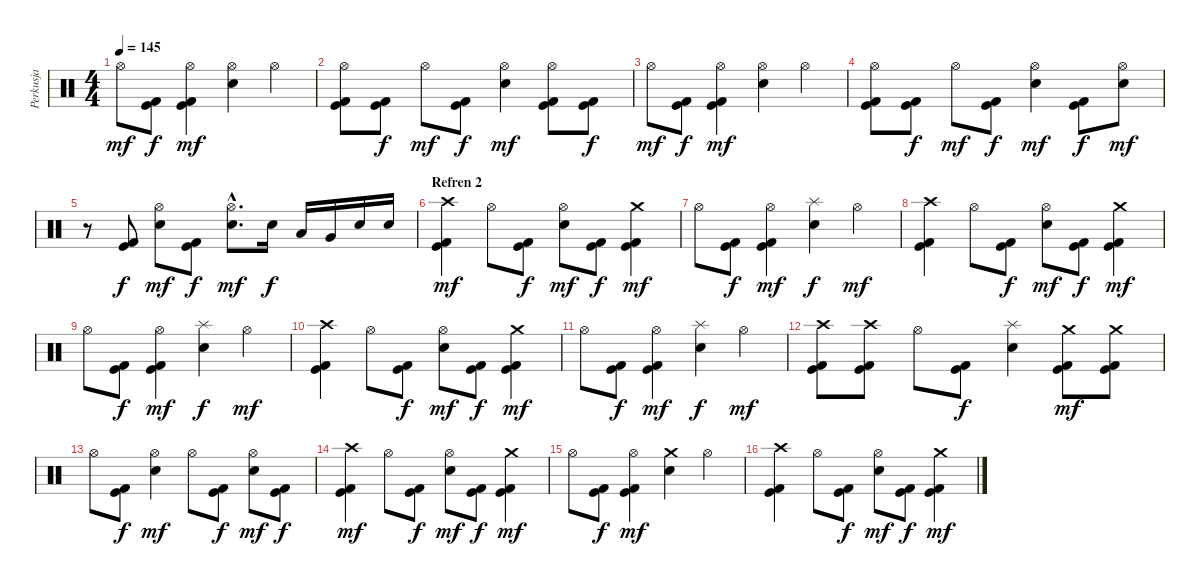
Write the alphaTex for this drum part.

\track ("Perkusja" "Perkusja") {instrument percussion}
\staff {score}
\articulation defaults
\ts (4 4)
\tempo 145
\clef neutral
\ks c "Hi-Hat (open)".8{dy mf}
("Kick (hit) 2" "Kick (hit)").8{dy f} ("Kick (hit) 2" "Kick (hit)" "Hi-Hat (open)").4{dy mf} ("Snare (hit) 2" "Hi-Hat (open)").4 "Hi-Hat (open)".4 |
("Kick (hit) 2" "Kick (hit)" "Hi-Hat (open)").8 ("Kick (hit) 2" "Kick (hit)").8{dy f} "Hi-Hat (open)".8{dy mf} ("Kick (hit) 2" "Kick (hit)").8{dy f} ("Snare (hit) 2" "Hi-Hat (open)").4{dy mf} ("Kick (hit) 2" "Kick (hit)" "Hi-Hat (open)").8 ("Kick (hit) 2" "Kick (hit)").8{dy f} |
"Hi-Hat (open)".8{dy mf} ("Kick (hit) 2" "Kick (hit)").8{dy f} ("Kick (hit) 2" "Kick (hit)" "Hi-Hat (open)").4{dy mf} ("Snare (hit) 2" "Hi-Hat (open)").4 "Hi-Hat (open)".4 |
("Kick (hit) 2" "Kick (hit)" "Hi-Hat (open)").8 ("Kick (hit) 2" "Kick (hit)").8{dy f} "Hi-Hat (open)".8{dy mf} ("Kick (hit) 2" "Kick (hit)").8{dy f} ("Snare (hit) 2" "Hi-Hat (open)").4{dy mf} ("Kick (hit) 2" "Kick (hit)").8{dy f} ("Hi-Hat (open)" "Snare (hit) 2").8{dy mf} |
r.8 ("Kick (hit) 2" "Kick (hit)").8{dy f} ("Snare (hit) 2" "Hi-Hat (open)").8{dy mf} ("Kick (hit) 2" "Kick (hit)").8{dy f} ("Snare (hit) 2"{hac} "Hi-Hat (open)"{hac}).8{d dy mf} "Snare (hit) 2".16{dy f} "Low Tom (hit)".16 "Very Low Tom (hit)".16 "Snare (hit) 2".16 "Snare (hit) 2".16 |
\section ("" "Refren 2")
("Kick (hit) 2" "Kick (hit)" "Crash high (hit)").4{dy mf} "Hi-Hat (open)".8 ("Kick (hit) 2" "Kick (hit)").8{dy f} ("Snare (hit) 2" "Hi-Hat (open)").8{dy mf} ("Kick (hit) 2" "Kick (hit)").8{dy f} ("Kick (hit)" "Kick (hit) 2" "Crash medium (hit)").4{dy mf} |
"Hi-Hat (open)".8 ("Kick (hit) 2" "Kick (hit)").8{dy f} ("Kick (hit) 2" "Kick (hit)" "Hi-Hat (open)").4{dy mf} ("Snare (hit) 2" "Splash (hit)").4{dy f} "Hi-Hat (open)".4{dy mf} |
("Kick (hit) 2" "Kick (hit)" "Crash high (hit)").4 "Hi-Hat (open)".8 ("Kick (hit) 2" "Kick (hit)").8{dy f} ("Snare (hit) 2" "Hi-Hat (open)").8{dy mf} ("Kick (hit) 2" "Kick (hit)").8{dy f} ("Kick (hit)" "Kick (hit) 2" "Crash medium (hit)").4{dy mf} |
"Hi-Hat (open)".8 ("Kick (hit) 2" "Kick (hit)").8{dy f} ("Kick (hit) 2" "Kick (hit)" "Hi-Hat (open)").4{dy mf} ("Snare (hit) 2" "Splash (hit)").4{dy f} "Hi-Hat (open)".4{dy mf} |
("Kick (hit) 2" "Kick (hit)" "Crash high (hit)").4 "Hi-Hat (open)".8 ("Kick (hit) 2" "Kick (hit)").8{dy f} ("Snare (hit) 2" "Hi-Hat (open)").8{dy mf} ("Kick (hit) 2" "Kick (hit)").8{dy f} ("Kick (hit)" "Kick (hit) 2" "Crash medium (hit)").4{dy mf} |
"Hi-Hat (open)".8 ("Kick (hit) 2" "Kick (hit)").8{dy f} ("Kick (hit) 2" "Kick (hit)" "Hi-Hat (open)").4{dy mf} ("Snare (hit) 2" "Splash (hit)").4{dy f} "Hi-Hat (open)".4{dy mf} |
("Kick (hit) 2" "Kick (hit)" "Crash high (hit)").8 ("Kick (hit) 2" "Kick (hit)" "Crash high (hit)").8 "Hi-Hat (open)".8 ("Kick (hit) 2" "Kick (hit)").8{dy f} ("Snare (hit) 2" "Splash (hit)").4 ("Kick (hit) 2" "Kick (hit)" "Crash medium (hit)").8{dy mf} ("Kick (hit)" "Kick (hit) 2" "Crash medium (hit)").8 |
"Hi-Hat (open)".8 ("Kick (hit) 2" "Kick (hit)").8{dy f} ("Snare (hit) 2" "Hi-Hat (open)").4{dy mf} "Hi-Hat (open)".8 ("Kick (hit) 2" "Kick (hit)").8{dy f} ("Snare (hit) 2" "Hi-Hat (open)").8{dy mf} ("Kick (hit) 2" "Kick (hit)").8{dy f} |
("Kick (hit) 2" "Kick (hit)" "Crash high (hit)").4{dy mf} "Hi-Hat (open)".8 ("Kick (hit) 2" "Kick (hit)").8{dy f} ("Snare (hit) 2" "Hi-Hat (open)").8{dy mf} ("Kick (hit) 2" "Kick (hit)").8{dy f} ("Kick (hit)" "Kick (hit) 2" "Crash medium (hit)").4{dy mf} |
"Hi-Hat (open)".8 ("Kick (hit) 2" "Kick (hit)").8{dy f} ("Kick (hit) 2" "Kick (hit)" "Hi-Hat (open)").4{dy mf} ("Snare (hit) 2" "Crash medium (hit)").4 "Hi-Hat (open)".4 |
("Kick (hit) 2" "Kick (hit)" "Crash high (hit)").4 "Hi-Hat (open)".8 ("Kick (hit) 2" "Kick (hit)").8{dy f} ("Snare (hit) 2" "Hi-Hat (open)").8{dy mf} ("Kick (hit) 2" "Kick (hit)").8{dy f} ("Kick (hit)" "Kick (hit) 2" "Crash medium (hit)").4{dy mf}
